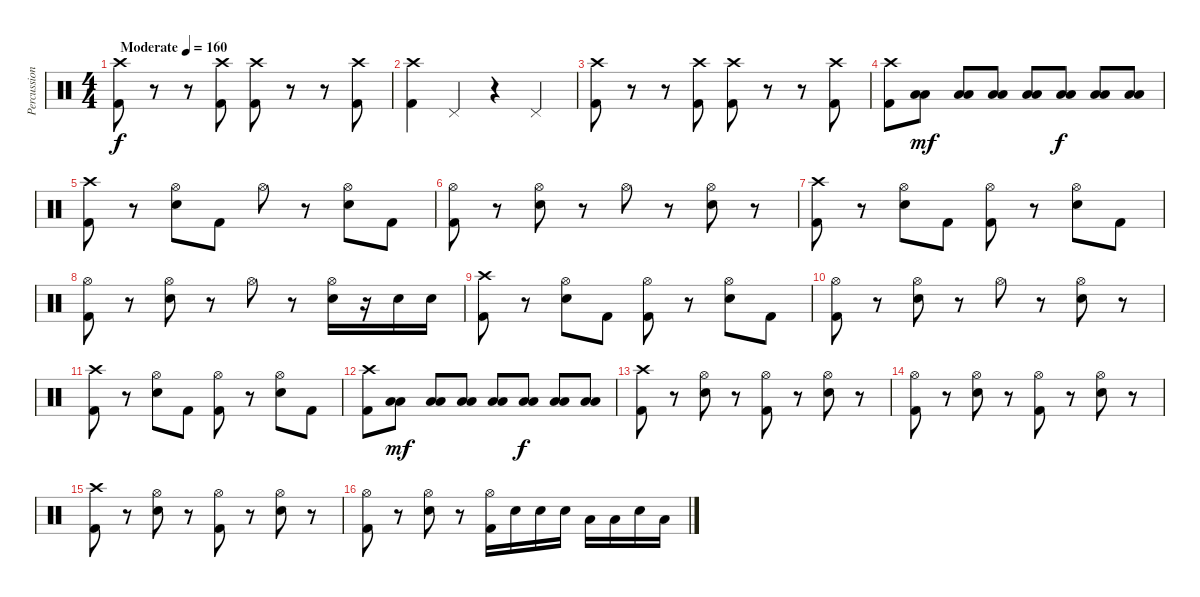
\track ("Percussion" "Percussion") {instrument percussion}
\staff {score}
\articulation defaults
\ts (4 4)
\tempo (160 "Moderate")
\clef neutral
\ks c
("Crash high (hit)" "Kick (hit) 2").8{dy f} r.8 r.8 ("Crash high (hit)" "Kick (hit) 2").8 ("Crash high (hit)" "Kick (hit) 2").8 r.8 r.8 ("Crash high (hit)" "Kick (hit) 2").8 |
("Crash high (hit)" "Kick (hit) 2").4 "Pedal Hi-Hat (hit)".4 r.4 "Pedal Hi-Hat (hit)".4 |
("Crash high (hit)" "Kick (hit) 2").8 r.8 r.8 ("Crash high (hit)" "Kick (hit) 2").8 ("Crash high (hit)" "Kick (hit) 2").8 r.8 r.8 ("Crash high (hit)" "Kick (hit) 2").8 |
("Crash high (hit)" "Kick (hit) 2").8 ("Low Floor Tom (hit)" "Low Tom (hit)").8{dy mf} ("Low Floor Tom (hit)" "Low Tom (hit)").8 ("Low Floor Tom (hit)" "Low Tom (hit)").8 ("Low Floor Tom (hit)" "Low Tom (hit)").8 ("Low Floor Tom (hit)" "Low Tom (hit)").8{dy f} ("Low Floor Tom (hit)" "Low Tom (hit)").8 ("Low Floor Tom (hit)" "Low Tom (hit)").8 |
("Crash high (hit)" "Kick (hit) 2").8 r.8 ("Hi-Hat (open)" "Snare (hit) 2").8 "Kick (hit) 2".8 "Hi-Hat (open)".8 r.8 ("Hi-Hat (open)" "Snare (hit) 2").8 "Kick (hit) 2".8 |
("Hi-Hat (open)" "Kick (hit) 2").8 r.8 ("Hi-Hat (open)" "Snare (hit) 2").8 r.8 "Hi-Hat (open)".8 r.8 ("Hi-Hat (open)" "Snare (hit) 2").8 r.8 |
("Crash high (hit)" "Kick (hit) 2").8 r.8 ("Hi-Hat (open)" "Snare (hit) 2").8 "Kick (hit) 2".8 ("Hi-Hat (open)" "Kick (hit) 2").8 r.8 ("Hi-Hat (open)" "Snare (hit) 2").8 "Kick (hit) 2".8 |
("Hi-Hat (open)" "Kick (hit) 2").8 r.8 ("Hi-Hat (open)" "Snare (hit) 2").8 r.8 "Hi-Hat (open)".8 r.8 ("Hi-Hat (open)" "Snare (hit) 2").16 r.16 "Snare (hit) 2".16 "Snare (hit) 2".16 |
("Crash high (hit)" "Kick (hit) 2").8 r.8 ("Hi-Hat (open)" "Snare (hit) 2").8 "Kick (hit) 2".8 ("Hi-Hat (open)" "Kick (hit) 2").8 r.8 ("Hi-Hat (open)" "Snare (hit) 2").8 "Kick (hit) 2".8 |
("Hi-Hat (open)" "Kick (hit) 2").8 r.8 ("Hi-Hat (open)" "Snare (hit) 2").8 r.8 "Hi-Hat (open)".8 r.8 ("Hi-Hat (open)" "Snare (hit) 2").8 r.8 |
("Crash high (hit)" "Kick (hit) 2").8 r.8 ("Hi-Hat (open)" "Snare (hit) 2").8 "Kick (hit) 2".8 ("Hi-Hat (open)" "Kick (hit) 2").8 r.8 ("Hi-Hat (open)" "Snare (hit) 2").8 "Kick (hit) 2".8 |
("Crash high (hit)" "Kick (hit) 2").8 ("Low Floor Tom (hit)" "Low Tom (hit)").8{dy mf} ("Low Floor Tom (hit)" "Low Tom (hit)").8 ("Low Floor Tom (hit)" "Low Tom (hit)").8 ("Low Floor Tom (hit)" "Low Tom (hit)").8 ("Low Floor Tom (hit)" "Low Tom (hit)").8{dy f} ("Low Floor Tom (hit)" "Low Tom (hit)").8 ("Low Floor Tom (hit)" "Low Tom (hit)").8 |
("Crash high (hit)" "Kick (hit) 2").8 r.8 ("Hi-Hat (open)" "Snare (hit) 2").8 r.8 ("Hi-Hat (open)" "Kick (hit) 2").8 r.8 ("Hi-Hat (open)" "Snare (hit) 2").8 r.8 |
("Hi-Hat (open)" "Kick (hit) 2").8 r.8 ("Hi-Hat (open)" "Snare (hit) 2").8 r.8 ("Hi-Hat (open)" "Kick (hit) 2").8 r.8 ("Hi-Hat (open)" "Snare (hit) 2").8 r.8 |
("Crash high (hit)" "Kick (hit) 2").8 r.8 ("Hi-Hat (open)" "Snare (hit) 2").8 r.8 ("Hi-Hat (open)" "Kick (hit) 2").8 r.8 ("Hi-Hat (open)" "Snare (hit) 2").8 r.8 |
("Hi-Hat (open)" "Kick (hit) 2").8 r.8 ("Hi-Hat (open)" "Snare (hit) 2").8 r.8 ("Hi-Hat (open)" "Kick (hit) 2").16 "Snare (hit) 2".16 "Snare (hit) 2".16 "Snare (hit) 2".16 "Low Floor Tom (hit)".16 "Low Floor Tom (hit)".16 "Snare (hit) 2".16 "Low Floor Tom (hit)".16
